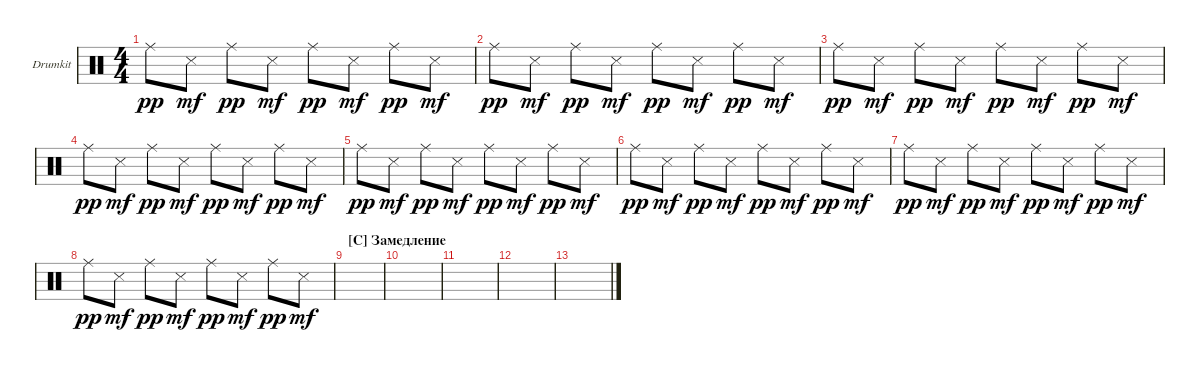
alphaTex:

\defaultSystemsLayout 4
\bracketExtendMode groupsimilarinstruments
\firstSystemTrackNameOrientation horizontal
\otherSystemsTrackNameOrientation horizontal
\track ("Drumkit" "Drumkit") {instrument percussion}
\staff {score}
\articulation defaults
\ts (4 4)
\tempo (77 hide)
\clef neutral
\ks c "Ride (middle)".8{dy pp} "Snare (side stick) 3".8{dy mf} "Ride (middle)".8{dy pp} "Snare (side stick) 3".8{dy mf} "Ride (middle)".8{dy pp} "Snare (side stick) 3".8{dy mf} "Ride (middle)".8{dy pp} "Snare (side stick) 3".8{dy mf}
|
"Ride (middle)".8{dy pp} "Snare (side stick) 3".8{dy mf} "Ride (middle)".8{dy pp} "Snare (side stick) 3".8{dy mf} "Ride (middle)".8{dy pp} "Snare (side stick) 3".8{dy mf} "Ride (middle)".8{dy pp} "Snare (side stick) 3".8{dy mf} |
"Ride (middle)".8{dy pp} "Snare (side stick) 3".8{dy mf} "Ride (middle)".8{dy pp} "Snare (side stick) 3".8{dy mf} "Ride (middle)".8{dy pp} "Snare (side stick) 3".8{dy mf} "Ride (middle)".8{dy pp} "Snare (side stick) 3".8{dy mf} |
"Ride (middle)".8{dy pp} "Snare (side stick) 3".8{dy mf} "Ride (middle)".8{dy pp} "Snare (side stick) 3".8{dy mf} "Ride (middle)".8{dy pp} "Snare (side stick) 3".8{dy mf} "Ride (middle)".8{dy pp} "Snare (side stick) 3".8{dy mf} |
"Ride (middle)".8{dy pp} "Snare (side stick) 3".8{dy mf} "Ride (middle)".8{dy pp} "Snare (side stick) 3".8{dy mf} "Ride (middle)".8{dy pp} "Snare (side stick) 3".8{dy mf} "Ride (middle)".8{dy pp} "Snare (side stick) 3".8{dy mf} |
"Ride (middle)".8{dy pp} "Snare (side stick) 3".8{dy mf} "Ride (middle)".8{dy pp} "Snare (side stick) 3".8{dy mf} "Ride (middle)".8{dy pp} "Snare (side stick) 3".8{dy mf} "Ride (middle)".8{dy pp} "Snare (side stick) 3".8{dy mf} |
"Ride (middle)".8{dy pp} "Snare (side stick) 3".8{dy mf} "Ride (middle)".8{dy pp} "Snare (side stick) 3".8{dy mf} "Ride (middle)".8{dy pp} "Snare (side stick) 3".8{dy mf} "Ride (middle)".8{dy pp} "Snare (side stick) 3".8{dy mf} |
"Ride (middle)".8{dy pp} "Snare (side stick) 3".8{dy mf} "Ride (middle)".8{dy pp} "Snare (side stick) 3".8{dy mf} "Ride (middle)".8{dy pp} "Snare (side stick) 3".8{dy mf} "Ride (middle)".8{dy pp} "Snare (side stick) 3".8{dy mf} |
\section ("C" "Замедление")
\tempo (77 hide)
|
|
|
|
\tempo (70 0.992 hide)
